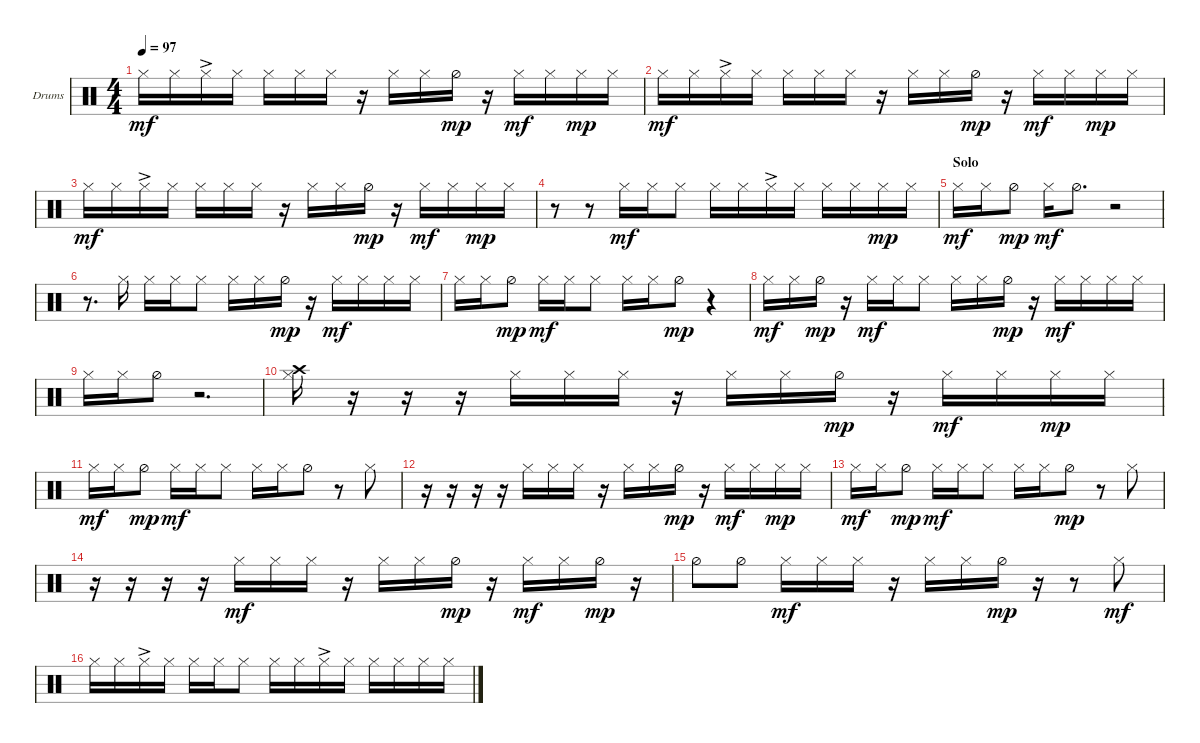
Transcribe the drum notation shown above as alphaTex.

\bracketExtendMode groupsimilarinstruments
\firstSystemTrackNameOrientation horizontal
\otherSystemsTrackNameOrientation horizontal
\track ("HH" "Drums") {instrument percussion}
\staff {score}
\articulation defaults
\ts (4 4)
\tempo 97
\clef neutral
\ks c "Hi-Hat (closed)".16{dy mf} "Hi-Hat (closed)".16 "Hi-Hat (closed)"{ac}.16 "Hi-Hat (closed)".16 "Hi-Hat (closed)".16 "Hi-Hat (closed)".16 "Hi-Hat (closed)".16
r.16 "Hi-Hat (closed)".16 "Hi-Hat (closed)".16 "Hi-Hat (half)".16{dy mp} r.16 "Hi-Hat (closed)".16{dy mf} "Hi-Hat (closed)".16 "Hi-Hat (closed)".16{dy mp} "Hi-Hat (closed)".16 |
"Hi-Hat (closed)".16{dy mf} "Hi-Hat (closed)".16 "Hi-Hat (closed)"{ac}.16 "Hi-Hat (closed)".16 "Hi-Hat (closed)".16 "Hi-Hat (closed)".16 "Hi-Hat (closed)".16 r.16 "Hi-Hat (closed)".16 "Hi-Hat (closed)".16 "Hi-Hat (half)".16{dy mp} r.16 "Hi-Hat (closed)".16{dy mf} "Hi-Hat (closed)".16 "Hi-Hat (closed)".16{dy mp} "Hi-Hat (closed)".16 |
"Hi-Hat (closed)".16{dy mf} "Hi-Hat (closed)".16 "Hi-Hat (closed)"{ac}.16 "Hi-Hat (closed)".16 "Hi-Hat (closed)".16 "Hi-Hat (closed)".16 "Hi-Hat (closed)".16 r.16 "Hi-Hat (closed)".16 "Hi-Hat (closed)".16 "Hi-Hat (half)".16{dy mp} r.16 "Hi-Hat (closed)".16{dy mf} "Hi-Hat (closed)".16 "Hi-Hat (closed)".16{dy mp} "Hi-Hat (closed)".16 |
r.8 r.8 "Hi-Hat (closed)".16{dy mf} "Hi-Hat (closed)".16 "Hi-Hat (closed)".8 "Hi-Hat (closed)".16 "Hi-Hat (closed)".16 "Hi-Hat (closed)"{ac}.16 "Hi-Hat (closed)".16 "Hi-Hat (closed)".16 "Hi-Hat (closed)".16 "Hi-Hat (closed)".16{dy mp} "Hi-Hat (closed)".16 |
\section ("" "Solo")
"Hi-Hat (closed)".16{dy mf} "Hi-Hat (closed)".16 "Hi-Hat (half)".8{dy mp} "Hi-Hat (closed)".16{dy mf} "Hi-Hat (half)".8{d} r.2 |
r.8{d} "Hi-Hat (closed)".16 "Hi-Hat (closed)".16 "Hi-Hat (closed)".16 "Hi-Hat (closed)".8 "Hi-Hat (closed)".16 "Hi-Hat (closed)".16 "Hi-Hat (half)".16{dy mp} r.16 "Hi-Hat (closed)".16{dy mf} "Hi-Hat (closed)".16 "Hi-Hat (closed)".16 "Hi-Hat (closed)".16 |
"Hi-Hat (closed)".16 "Hi-Hat (closed)".16 "Hi-Hat (half)".8{dy mp} "Hi-Hat (closed)".16{dy mf} "Hi-Hat (closed)".16 "Hi-Hat (closed)".8 "Hi-Hat (closed)".16 "Hi-Hat (closed)".16 "Hi-Hat (half)".8{dy mp} r.4 |
"Hi-Hat (closed)".16{dy mf} "Hi-Hat (closed)".16 "Hi-Hat (half)".16{dy mp} r.16 "Hi-Hat (closed)".16{dy mf} "Hi-Hat (closed)".16 "Hi-Hat (closed)".8 "Hi-Hat (closed)".16 "Hi-Hat (closed)".16 "Hi-Hat (half)".16{dy mp} r.16 "Hi-Hat (closed)".16{dy mf} "Hi-Hat (closed)".16 "Hi-Hat (closed)".16 "Hi-Hat (closed)".16 |
"Hi-Hat (closed)".16 "Hi-Hat (closed)".16 "Hi-Hat (half)".8 r.2{d} |
("Hi-Hat (closed)" "Crash high (hit)").16 r.16 r.16 r.16 "Hi-Hat (closed)".16 "Hi-Hat (closed)".16 "Hi-Hat (closed)".16 r.16 "Hi-Hat (closed)".16 "Hi-Hat (closed)".16 "Hi-Hat (half)".16{dy mp} r.16 "Hi-Hat (closed)".16{dy mf} "Hi-Hat (closed)".16 "Hi-Hat (closed)".16{dy mp} "Hi-Hat (closed)".16 |
"Hi-Hat (closed)".16{dy mf} "Hi-Hat (closed)".16 "Hi-Hat (half)".8{dy mp} "Hi-Hat (closed)".16{dy mf} "Hi-Hat (closed)".16 "Hi-Hat (closed)".8 "Hi-Hat (closed)".16 "Hi-Hat (closed)".16 "Hi-Hat (half)".8 r.8 "Hi-Hat (closed)".8 |
r.16 r.16 r.16 r.16 "Hi-Hat (closed)".16 "Hi-Hat (closed)".16 "Hi-Hat (closed)".16 r.16 "Hi-Hat (closed)".16 "Hi-Hat (closed)".16 "Hi-Hat (half)".16{dy mp} r.16 "Hi-Hat (closed)".16{dy mf} "Hi-Hat (closed)".16 "Hi-Hat (closed)".16{dy mp} "Hi-Hat (closed)".16 |
"Hi-Hat (closed)".16{dy mf} "Hi-Hat (closed)".16 "Hi-Hat (half)".8{dy mp} "Hi-Hat (closed)".16{dy mf} "Hi-Hat (closed)".16 "Hi-Hat (closed)".8 "Hi-Hat (closed)".16 "Hi-Hat (closed)".16 "Hi-Hat (half)".8{dy mp} r.8 "Hi-Hat (closed)".8 |
r.16 r.16 r.16 r.16 "Hi-Hat (closed)".16{dy mf} "Hi-Hat (closed)".16 "Hi-Hat (closed)".16 r.16 "Hi-Hat (closed)".16 "Hi-Hat (closed)".16 "Hi-Hat (half)".16{dy mp} r.16 "Hi-Hat (closed)".16{dy mf} "Hi-Hat (closed)".16 "Hi-Hat (half)".16{dy mp} r.16 |
"Hi-Hat (half)".8 "Hi-Hat (half)".8 "Hi-Hat (closed)".16{dy mf} "Hi-Hat (closed)".16 "Hi-Hat (closed)".16 r.16 "Hi-Hat (closed)".16 "Hi-Hat (closed)".16 "Hi-Hat (half)".16{dy mp} r.16 r.8 "Hi-Hat (closed)".8{dy mf} |
"Hi-Hat (closed)".16 "Hi-Hat (closed)".16 "Hi-Hat (closed)"{ac}.16 "Hi-Hat (closed)".16 "Hi-Hat (closed)".16 "Hi-Hat (closed)".16 "Hi-Hat (closed)".8 "Hi-Hat (closed)".16 "Hi-Hat (closed)".16 "Hi-Hat (closed)"{ac}.16 "Hi-Hat (closed)".16 "Hi-Hat (closed)".16 "Hi-Hat (closed)".16 "Hi-Hat (closed)".16 "Hi-Hat (closed)".16
